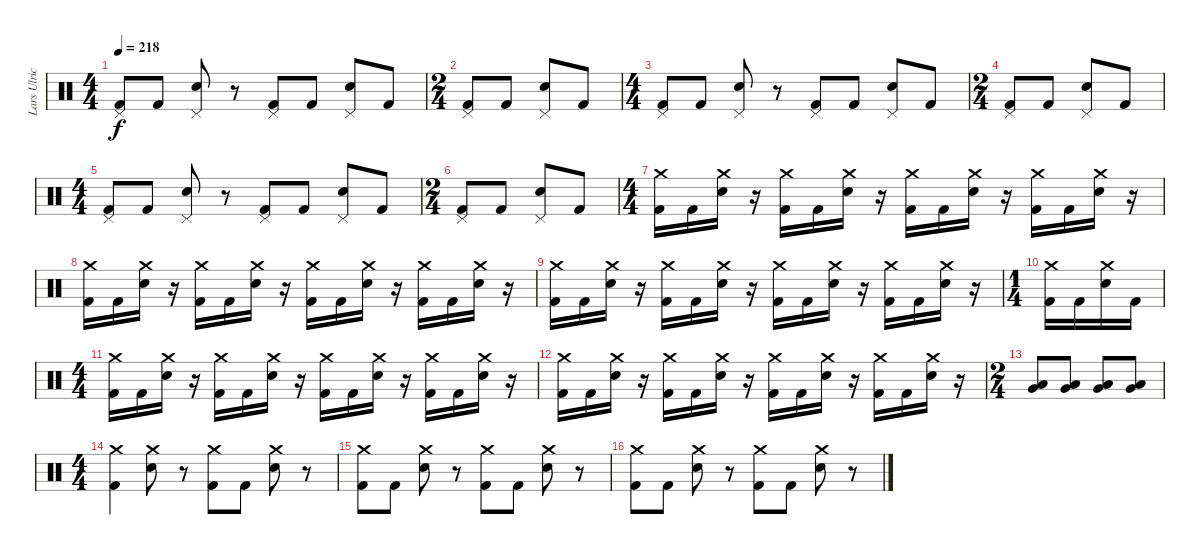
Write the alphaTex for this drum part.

\track ("Lars Ulrich" "Lars Ulric") {instrument percussion}
\staff {score}
\articulation defaults
\ts (4 4)
\tempo 218
\clef neutral
\ks c
("Pedal Hi-Hat (hit)" "Kick (hit) 2").8{dy f} "Kick (hit) 2".8 ("Pedal Hi-Hat (hit)" "Electric Snare (hit)").8 r.8 ("Pedal Hi-Hat (hit)" "Kick (hit) 2").8 "Kick (hit) 2".8 ("Pedal Hi-Hat (hit)" "Electric Snare (hit)").8 "Kick (hit) 2".8 |
\ts (2 4)
("Pedal Hi-Hat (hit)" "Kick (hit) 2").8 "Kick (hit) 2".8 ("Pedal Hi-Hat (hit)" "Electric Snare (hit)").8 "Kick (hit) 2".8 |
\ts (4 4)
("Pedal Hi-Hat (hit)" "Kick (hit) 2").8 "Kick (hit) 2".8 ("Pedal Hi-Hat (hit)" "Electric Snare (hit)").8 r.8 ("Pedal Hi-Hat (hit)" "Kick (hit) 2").8 "Kick (hit) 2".8 ("Pedal Hi-Hat (hit)" "Electric Snare (hit)").8 "Kick (hit) 2".8 |
\ts (2 4)
("Pedal Hi-Hat (hit)" "Kick (hit) 2").8 "Kick (hit) 2".8 ("Pedal Hi-Hat (hit)" "Electric Snare (hit)").8 "Kick (hit) 2".8 |
\ts (4 4)
("Pedal Hi-Hat (hit)" "Kick (hit) 2").8 "Kick (hit) 2".8 ("Pedal Hi-Hat (hit)" "Electric Snare (hit)").8 r.8 ("Pedal Hi-Hat (hit)" "Kick (hit) 2").8 "Kick (hit) 2".8 ("Pedal Hi-Hat (hit)" "Electric Snare (hit)").8 "Kick (hit) 2".8 |
\ts (2 4)
("Pedal Hi-Hat (hit)" "Kick (hit) 2").8 "Kick (hit) 2".8 ("Pedal Hi-Hat (hit)" "Electric Snare (hit)").8 "Kick (hit) 2".8 |
\ts (4 4)
("Crash medium (hit)" "Kick (hit) 2").16 "Kick (hit) 2".16 ("Crash medium (hit)" "Electric Snare (hit)").16 r.16 ("Crash medium (hit)" "Kick (hit) 2").16 "Kick (hit) 2".16 ("Crash medium (hit)" "Electric Snare (hit)").16 r.16 ("Crash medium (hit)" "Kick (hit) 2").16 "Kick (hit) 2".16 ("Crash medium (hit)" "Electric Snare (hit)").16 r.16 ("Crash medium (hit)" "Kick (hit) 2").16 "Kick (hit) 2".16 ("Crash medium (hit)" "Electric Snare (hit)").16 r.16 |
("Crash medium (hit)" "Kick (hit) 2").16 "Kick (hit) 2".16 ("Crash medium (hit)" "Electric Snare (hit)").16 r.16 ("Crash medium (hit)" "Kick (hit) 2").16 "Kick (hit) 2".16 ("Crash medium (hit)" "Electric Snare (hit)").16 r.16 ("Crash medium (hit)" "Kick (hit) 2").16 "Kick (hit) 2".16 ("Crash medium (hit)" "Electric Snare (hit)").16 r.16 ("Crash medium (hit)" "Kick (hit) 2").16 "Kick (hit) 2".16 ("Crash medium (hit)" "Electric Snare (hit)").16 r.16 |
("Crash medium (hit)" "Kick (hit) 2").16 "Kick (hit) 2".16 ("Crash medium (hit)" "Electric Snare (hit)").16 r.16 ("Crash medium (hit)" "Kick (hit) 2").16 "Kick (hit) 2".16 ("Crash medium (hit)" "Electric Snare (hit)").16 r.16 ("Crash medium (hit)" "Kick (hit) 2").16 "Kick (hit) 2".16 ("Crash medium (hit)" "Electric Snare (hit)").16 r.16 ("Crash medium (hit)" "Kick (hit) 2").16 "Kick (hit) 2".16 ("Crash medium (hit)" "Electric Snare (hit)").16 r.16 |
\ts (1 4)
("Crash medium (hit)" "Kick (hit) 2").16 "Kick (hit) 2".16 ("Crash medium (hit)" "Electric Snare (hit)").16 "Kick (hit) 2".16 |
\ts (4 4)
("Crash medium (hit)" "Kick (hit) 2").16 "Kick (hit) 2".16 ("Crash medium (hit)" "Electric Snare (hit)").16 r.16 ("Crash medium (hit)" "Kick (hit) 2").16 "Kick (hit) 2".16 ("Crash medium (hit)" "Electric Snare (hit)").16 r.16 ("Crash medium (hit)" "Kick (hit) 2").16 "Kick (hit) 2".16 ("Crash medium (hit)" "Electric Snare (hit)").16 r.16 ("Crash medium (hit)" "Kick (hit) 2").16 "Kick (hit) 2".16 ("Crash medium (hit)" "Electric Snare (hit)").16 r.16 |
("Crash medium (hit)" "Kick (hit) 2").16 "Kick (hit) 2".16 ("Crash medium (hit)" "Electric Snare (hit)").16 r.16 ("Crash medium (hit)" "Kick (hit) 2").16 "Kick (hit) 2".16 ("Crash medium (hit)" "Electric Snare (hit)").16 r.16 ("Crash medium (hit)" "Kick (hit) 2").16 "Kick (hit) 2".16 ("Crash medium (hit)" "Electric Snare (hit)").16 r.16 ("Crash medium (hit)" "Kick (hit) 2").16 "Kick (hit) 2".16 ("Crash medium (hit)" "Electric Snare (hit)").16 r.16 |
\ts (2 4)
("Low Floor Tom (hit)" "Very Low Tom (hit)").8 ("Low Floor Tom (hit)" "Very Low Tom (hit)").8 ("Low Floor Tom (hit)" "Very Low Tom (hit)").8 ("Low Floor Tom (hit)" "Very Low Tom (hit)").8 |
\ts (4 4)
("Crash medium (hit)" "Kick (hit) 2").4 ("Crash medium (hit)" "Electric Snare (hit)").8 r.8 ("Crash medium (hit)" "Kick (hit) 2").8 "Kick (hit) 2".8 ("Crash medium (hit)" "Electric Snare (hit)").8 r.8 |
("Crash medium (hit)" "Kick (hit) 2").8 "Kick (hit) 2".8 ("Crash medium (hit)" "Electric Snare (hit)").8 r.8 ("Crash medium (hit)" "Kick (hit) 2").8 "Kick (hit) 2".8 ("Crash medium (hit)" "Electric Snare (hit)").8 r.8 |
("Crash medium (hit)" "Kick (hit) 2").8 "Kick (hit) 2".8 ("Crash medium (hit)" "Electric Snare (hit)").8 r.8 ("Crash medium (hit)" "Kick (hit) 2").8 "Kick (hit) 2".8 ("Crash medium (hit)" "Electric Snare (hit)").8 r.8
